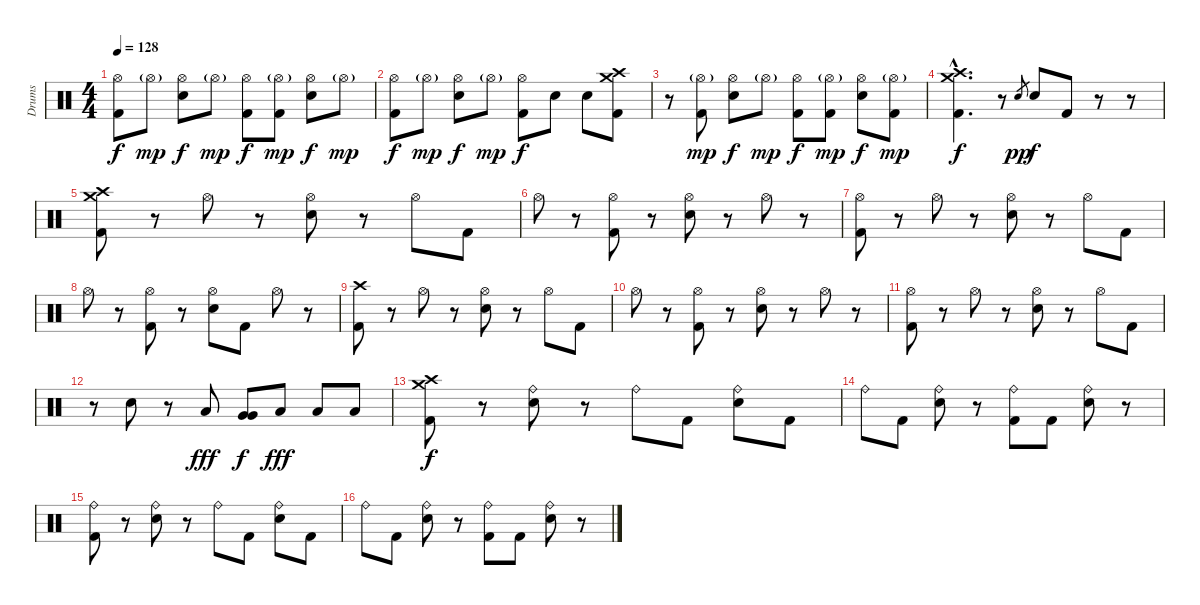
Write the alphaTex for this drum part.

\track ("Drums" "Drums") {instrument percussion}
\staff {score}
\articulation defaults
\ts (4 4)
\tempo 128
\clef neutral
\ks c
("Hi-Hat (open)" "Kick (hit) 2").8{dy f} "Hi-Hat (open)"{g}.8{dy mp} ("Hi-Hat (open)" "Electric Snare (hit)").8{dy f} "Hi-Hat (open)"{g}.8{dy mp} ("Hi-Hat (open)" "Kick (hit) 2").8{dy f} ("Hi-Hat (open)"{g} "Kick (hit) 2").8{dy mp} ("Hi-Hat (open)" "Electric Snare (hit)").8{dy f} "Hi-Hat (open)"{g}.8{dy mp} |
("Hi-Hat (open)" "Kick (hit) 2").8{dy f} "Hi-Hat (open)"{g}.8{dy mp} ("Hi-Hat (open)" "Electric Snare (hit)").8{dy f} "Hi-Hat (open)"{g}.8{dy mp} ("Hi-Hat (open)" "Kick (hit) 2").8{dy f} "Electric Snare (hit)".8 "Electric Snare (hit)".8 ("Crash medium (hit)" "Crash high (hit)" "Kick (hit) 2").8 |
r.8 ("Hi-Hat (open)"{g} "Kick (hit) 2").8{dy mp} ("Hi-Hat (open)" "Electric Snare (hit)").8{dy f} "Hi-Hat (open)"{g}.8{dy mp} ("Hi-Hat (open)" "Kick (hit) 2").8{dy f} ("Hi-Hat (open)"{g} "Kick (hit) 2").8{dy mp} ("Hi-Hat (open)" "Electric Snare (hit)").8{dy f} ("Hi-Hat (open)"{g} "Kick (hit) 2").8{dy mp} |
("Crash medium (hit)"{hac} "Crash high (hit)"{hac} "Kick (hit) 2"{hac}).4{d dy f} r.8 "Electric Snare (hit)".8{gr dy pp} "Electric Snare (hit)".8{dy f} "Kick (hit) 2".8 r.8 r.8 |
("Crash medium (hit)" "Crash high (hit)" "Kick (hit) 2").8 r.8 "Hi-Hat (open)".8 r.8 ("Hi-Hat (open)" "Electric Snare (hit)").8 r.8 "Hi-Hat (open)".8 "Kick (hit) 2".8 |
"Hi-Hat (open)".8 r.8 ("Hi-Hat (open)" "Kick (hit) 2").8 r.8 ("Hi-Hat (open)" "Electric Snare (hit)").8 r.8 "Hi-Hat (open)".8 r.8 |
("Hi-Hat (open)" "Kick (hit) 2").8 r.8 "Hi-Hat (open)".8 r.8 ("Hi-Hat (open)" "Electric Snare (hit)").8 r.8 "Hi-Hat (open)".8 "Kick (hit) 2".8 |
"Hi-Hat (open)".8 r.8 ("Hi-Hat (open)" "Kick (hit) 2").8 r.8 ("Hi-Hat (open)" "Electric Snare (hit)").8 "Kick (hit) 2".8 "Hi-Hat (open)".8 r.8 |
("Crash high (hit)" "Kick (hit) 2").8 r.8 "Hi-Hat (open)".8 r.8 ("Hi-Hat (open)" "Electric Snare (hit)").8 r.8 "Hi-Hat (open)".8 "Kick (hit) 2".8 |
"Hi-Hat (open)".8 r.8 ("Hi-Hat (open)" "Kick (hit) 2").8 r.8 ("Hi-Hat (open)" "Electric Snare (hit)").8 r.8 "Hi-Hat (open)".8 r.8 |
("Hi-Hat (open)" "Kick (hit) 2").8 r.8 "Hi-Hat (open)".8 r.8 ("Hi-Hat (open)" "Electric Snare (hit)").8 r.8 "Hi-Hat (open)".8 "Kick (hit) 2".8 |
r.8 "Electric Snare (hit)".8 r.8 "Low Floor Tom (hit)".8{dy fff} ("Very Low Tom (hit)" "Very Low Tom (hit)").8{bd 120 dy f} "Low Floor Tom (hit)".8{dy fff} "Low Floor Tom (hit)".8 "Low Floor Tom (hit)".8 |
("Crash medium (hit)" "Crash high (hit)" "Kick (hit) 2").8{dy f} r.8 ("Ride (bell)" "Electric Snare (hit)").8 r.8 "Ride (bell)".8 "Kick (hit) 2".8 ("Ride (bell)" "Electric Snare (hit)").8 "Kick (hit) 2".8 |
"Ride (bell)".8 "Kick (hit) 2".8 ("Ride (bell)" "Electric Snare (hit)").8 r.8 ("Ride (bell)" "Kick (hit) 2").8 "Kick (hit) 2".8 ("Ride (bell)" "Electric Snare (hit)").8 r.8 |
("Ride (bell)" "Kick (hit) 2").8 r.8 ("Ride (bell)" "Electric Snare (hit)").8 r.8 "Ride (bell)".8 "Kick (hit) 2".8 ("Ride (bell)" "Electric Snare (hit)").8 "Kick (hit) 2".8 |
"Ride (bell)".8 "Kick (hit) 2".8 ("Ride (bell)" "Electric Snare (hit)").8 r.8 ("Ride (bell)" "Kick (hit) 2").8 "Kick (hit) 2".8 ("Ride (bell)" "Electric Snare (hit)").8 r.8
